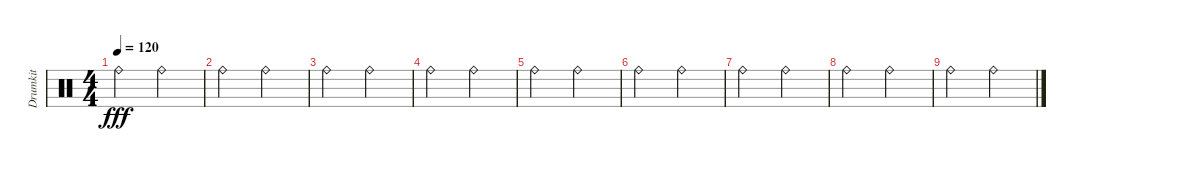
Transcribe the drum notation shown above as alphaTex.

\track ("Drumkit" "Drumkit") {instrument percussion}
\staff {score}
\articulation defaults
\ts (4 4)
\tempo 120
\clef neutral
\ks c "Ride (bell)".2{dy fff} "Ride (bell)".2
|
"Ride (bell)".2 "Ride (bell)".2 |
"Ride (bell)".2 "Ride (bell)".2 |
"Ride (bell)".2 "Ride (bell)".2 |
"Ride (bell)".2 "Ride (bell)".2 |
"Ride (bell)".2 "Ride (bell)".2 |
"Ride (bell)".2 "Ride (bell)".2 |
"Ride (bell)".2 "Ride (bell)".2 |
"Ride (bell)".2 "Ride (bell)".2
